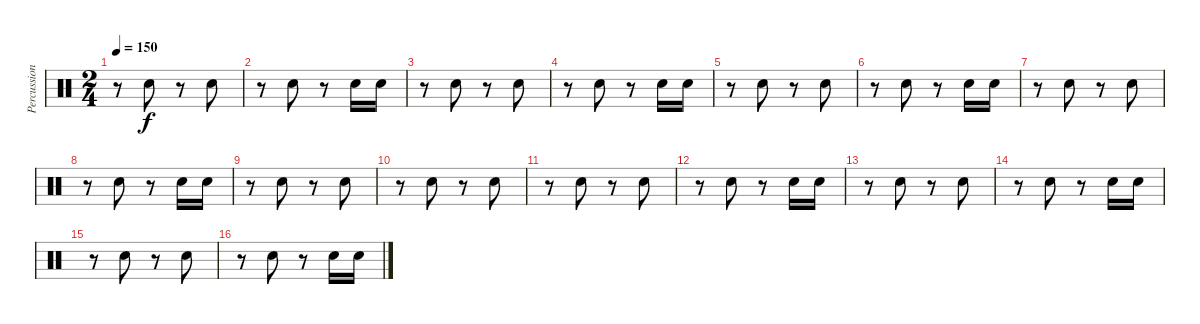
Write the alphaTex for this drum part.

\track ("Percussions" "Percussion") {instrument percussion}
\staff {score}
\articulation defaults
\ts (2 4)
\tempo 150
\clef neutral
\ks c
r.8{dy f} "Electric Snare (hit)".8 r.8 "Electric Snare (hit)".8 |
r.8 "Electric Snare (hit)".8 r.8 "Electric Snare (hit)".16 "Electric Snare (hit)".16 |
r.8 "Electric Snare (hit)".8 r.8 "Electric Snare (hit)".8 |
r.8 "Electric Snare (hit)".8 r.8 "Electric Snare (hit)".16 "Electric Snare (hit)".16 |
r.8 "Electric Snare (hit)".8 r.8 "Electric Snare (hit)".8 |
r.8 "Electric Snare (hit)".8 r.8 "Electric Snare (hit)".16 "Electric Snare (hit)".16 |
r.8 "Electric Snare (hit)".8 r.8 "Electric Snare (hit)".8 |
r.8 "Electric Snare (hit)".8 r.8 "Electric Snare (hit)".16 "Electric Snare (hit)".16 |
r.8 "Electric Snare (hit)".8 r.8 "Electric Snare (hit)".8 |
r.8 "Electric Snare (hit)".8 r.8 "Electric Snare (hit)".8 |
r.8 "Electric Snare (hit)".8 r.8 "Electric Snare (hit)".8 |
r.8 "Electric Snare (hit)".8 r.8 "Electric Snare (hit)".16 "Electric Snare (hit)".16 |
r.8 "Electric Snare (hit)".8 r.8 "Electric Snare (hit)".8 |
r.8 "Electric Snare (hit)".8 r.8 "Electric Snare (hit)".16 "Electric Snare (hit)".16 |
r.8 "Electric Snare (hit)".8 r.8 "Electric Snare (hit)".8 |
r.8 "Electric Snare (hit)".8 r.8 "Electric Snare (hit)".16 "Electric Snare (hit)".16
